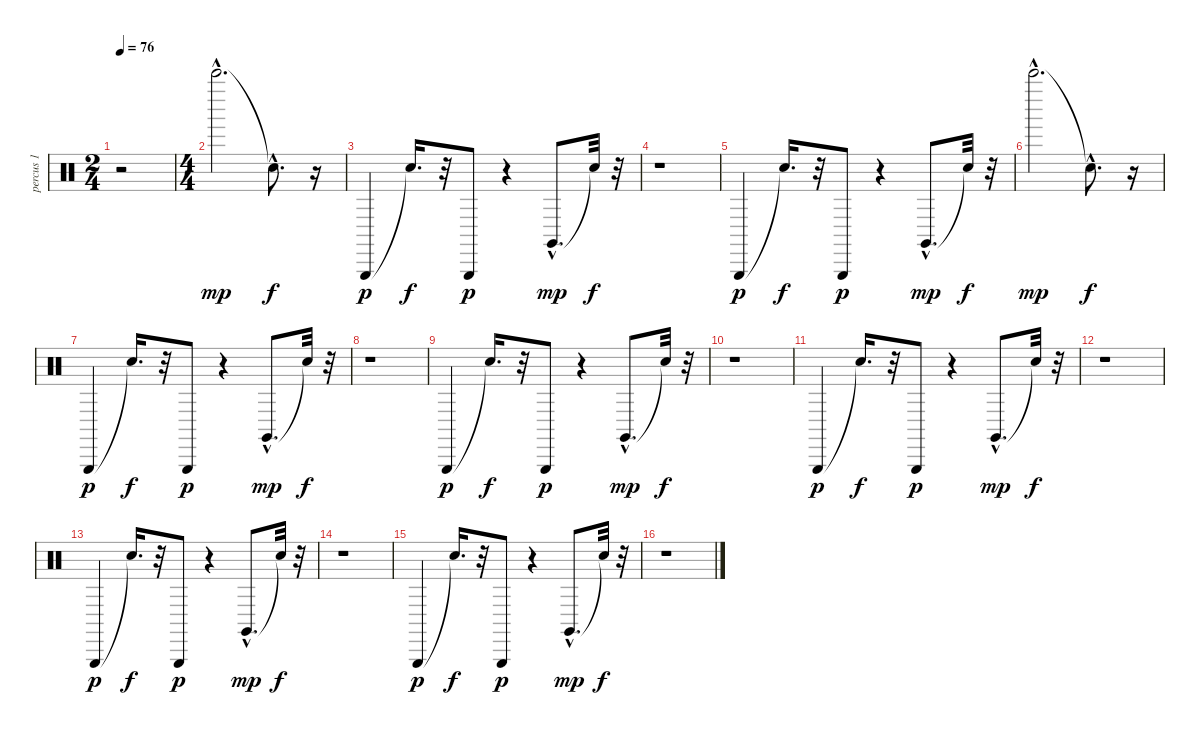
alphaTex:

\track ("percus 1" "percus 1") {instrument percussion}
\staff {score}
\articulation defaults
\ts (2 4)
\tempo 76
\clef neutral
\ks c
r.2{dy mp} |
\ts (4 4)
"Bell Tree (hit)"{hac}.2{d} "Snare (hit)"{hac t}.8{d dy f} r.16 |
"Triangle (hit)".4{dy p} "Snare (hit)"{t}.16{d dy f} r.32 "Triangle (hit)".8{dy p} r.4 "Claves (hit)"{hac}.8{d dy mp} "Snare (hit)"{t}.32{dy f} r.32 |
r.1 |
"Triangle (hit)".4{dy p} "Snare (hit)"{t}.16{d dy f} r.32 "Triangle (hit)".8{dy p} r.4 "Claves (hit)"{hac}.8{d dy mp} "Snare (hit)"{t}.32{dy f} r.32 |
"Bell Tree (hit)"{hac}.2{d dy mp} "Snare (hit)"{hac t}.8{d dy f} r.16 |
"Triangle (hit)".4{dy p} "Snare (hit)"{t}.16{d dy f} r.32 "Triangle (hit)".8{dy p} r.4 "Claves (hit)"{hac}.8{d dy mp} "Snare (hit)"{t}.32{dy f} r.32 |
r.1 |
"Triangle (hit)".4{dy p} "Snare (hit)"{t}.16{d dy f} r.32 "Triangle (hit)".8{dy p} r.4 "Claves (hit)"{hac}.8{d dy mp} "Snare (hit)"{t}.32{dy f} r.32 |
r.1 |
"Triangle (hit)".4{dy p} "Snare (hit)"{t}.16{d dy f} r.32 "Triangle (hit)".8{dy p} r.4 "Claves (hit)"{hac}.8{d dy mp} "Snare (hit)"{t}.32{dy f} r.32 |
r.1 |
"Triangle (hit)".4{dy p} "Snare (hit)"{t}.16{d dy f} r.32 "Triangle (hit)".8{dy p} r.4 "Claves (hit)"{hac}.8{d dy mp} "Snare (hit)"{t}.32{dy f} r.32 |
r.1 |
"Triangle (hit)".4{dy p} "Snare (hit)"{t}.16{d dy f} r.32 "Triangle (hit)".8{dy p} r.4 "Claves (hit)"{hac}.8{d dy mp} "Snare (hit)"{t}.32{dy f} r.32 |
r.1
